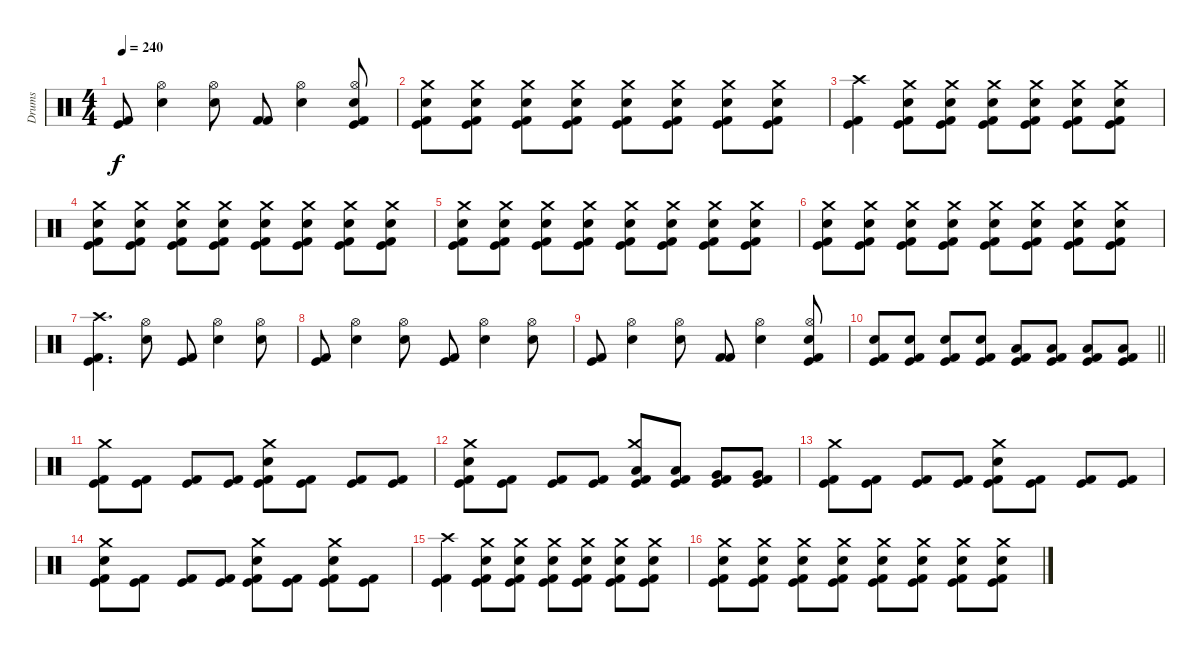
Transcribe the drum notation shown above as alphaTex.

\track ("Drums" "Drums") {instrument percussion}
\staff {score}
\articulation defaults
\ts (4 4)
\tempo 240
\clef neutral
\ks c
("Kick (hit)" "Kick (hit) 2").8{dy f} ("Hi-Hat (open)" "Electric Snare (hit)").4 ("Hi-Hat (open)" "Electric Snare (hit)").8 ("Kick (hit) 2" "Kick (hit) 2").8 ("Hi-Hat (open)" "Electric Snare (hit)").4 ("Hi-Hat (open)" "Electric Snare (hit)" "Kick (hit)" "Kick (hit) 2").8 |
("Crash medium (hit)" "Electric Snare (hit)" "Kick (hit)" "Kick (hit) 2").8 ("Crash medium (hit)" "Electric Snare (hit)" "Kick (hit)" "Kick (hit) 2").8 ("Crash medium (hit)" "Electric Snare (hit)" "Kick (hit)" "Kick (hit) 2").8 ("Crash medium (hit)" "Electric Snare (hit)" "Kick (hit)" "Kick (hit) 2").8 ("Crash medium (hit)" "Electric Snare (hit)" "Kick (hit)" "Kick (hit) 2").8 ("Crash medium (hit)" "Electric Snare (hit)" "Kick (hit)" "Kick (hit) 2").8 ("Crash medium (hit)" "Electric Snare (hit)" "Kick (hit)" "Kick (hit) 2").8 ("Crash medium (hit)" "Electric Snare (hit)" "Kick (hit)" "Kick (hit) 2").8 |
("Crash high (hit)" "Kick (hit)" "Kick (hit) 2").4 ("Crash medium (hit)" "Electric Snare (hit)" "Kick (hit)" "Kick (hit) 2").8 ("Crash medium (hit)" "Electric Snare (hit)" "Kick (hit)" "Kick (hit) 2").8 ("Crash medium (hit)" "Electric Snare (hit)" "Kick (hit)" "Kick (hit) 2").8 ("Crash medium (hit)" "Electric Snare (hit)" "Kick (hit)" "Kick (hit) 2").8 ("Crash medium (hit)" "Electric Snare (hit)" "Kick (hit)" "Kick (hit) 2").8 ("Crash medium (hit)" "Electric Snare (hit)" "Kick (hit)" "Kick (hit) 2").8 |
("Crash medium (hit)" "Electric Snare (hit)" "Kick (hit)" "Kick (hit) 2").8 ("Crash medium (hit)" "Electric Snare (hit)" "Kick (hit)" "Kick (hit) 2").8 ("Crash medium (hit)" "Electric Snare (hit)" "Kick (hit)" "Kick (hit) 2").8 ("Crash medium (hit)" "Electric Snare (hit)" "Kick (hit)" "Kick (hit) 2").8 ("Crash medium (hit)" "Electric Snare (hit)" "Kick (hit)" "Kick (hit) 2").8 ("Crash medium (hit)" "Electric Snare (hit)" "Kick (hit)" "Kick (hit) 2").8 ("Crash medium (hit)" "Electric Snare (hit)" "Kick (hit)" "Kick (hit) 2").8 ("Crash medium (hit)" "Electric Snare (hit)" "Kick (hit)" "Kick (hit) 2").8 |
("Crash medium (hit)" "Electric Snare (hit)" "Kick (hit)" "Kick (hit) 2").8 ("Crash medium (hit)" "Electric Snare (hit)" "Kick (hit)" "Kick (hit) 2").8 ("Crash medium (hit)" "Electric Snare (hit)" "Kick (hit)" "Kick (hit) 2").8 ("Crash medium (hit)" "Electric Snare (hit)" "Kick (hit)" "Kick (hit) 2").8 ("Crash medium (hit)" "Electric Snare (hit)" "Kick (hit)" "Kick (hit) 2").8 ("Crash medium (hit)" "Electric Snare (hit)" "Kick (hit)" "Kick (hit) 2").8 ("Crash medium (hit)" "Electric Snare (hit)" "Kick (hit)" "Kick (hit) 2").8 ("Crash medium (hit)" "Electric Snare (hit)" "Kick (hit)" "Kick (hit) 2").8 |
("Crash medium (hit)" "Electric Snare (hit)" "Kick (hit)" "Kick (hit) 2").8 ("Crash medium (hit)" "Electric Snare (hit)" "Kick (hit)" "Kick (hit) 2").8 ("Crash medium (hit)" "Electric Snare (hit)" "Kick (hit)" "Kick (hit) 2").8 ("Crash medium (hit)" "Electric Snare (hit)" "Kick (hit)" "Kick (hit) 2").8 ("Crash medium (hit)" "Electric Snare (hit)" "Kick (hit)" "Kick (hit) 2").8 ("Crash medium (hit)" "Electric Snare (hit)" "Kick (hit)" "Kick (hit) 2").8 ("Crash medium (hit)" "Electric Snare (hit)" "Kick (hit)" "Kick (hit) 2").8 ("Crash medium (hit)" "Electric Snare (hit)" "Kick (hit)" "Kick (hit) 2").8 |
("Crash high (hit)" "Kick (hit)" "Kick (hit) 2").4{d} ("Hi-Hat (open)" "Electric Snare (hit)").8 ("Kick (hit)" "Kick (hit) 2").8 ("Hi-Hat (open)" "Electric Snare (hit)").4 ("Hi-Hat (open)" "Electric Snare (hit)").8 |
("Kick (hit)" "Kick (hit) 2").8 ("Hi-Hat (open)" "Electric Snare (hit)").4 ("Hi-Hat (open)" "Electric Snare (hit)").8 ("Kick (hit)" "Kick (hit) 2").8 ("Hi-Hat (open)" "Electric Snare (hit)").4 ("Hi-Hat (open)" "Electric Snare (hit)").8 |
("Kick (hit)" "Kick (hit) 2").8 ("Hi-Hat (open)" "Electric Snare (hit)").4 ("Hi-Hat (open)" "Electric Snare (hit)").8 ("Kick (hit) 2" "Kick (hit) 2").8 ("Hi-Hat (open)" "Electric Snare (hit)").4 ("Hi-Hat (open)" "Electric Snare (hit)" "Kick (hit)" "Kick (hit) 2").8 |
\barLineRight lightlight
("Electric Snare (hit)" "Kick (hit)" "Kick (hit) 2").8 ("Electric Snare (hit)" "Kick (hit)" "Kick (hit) 2").8 ("Electric Snare (hit)" "Kick (hit)" "Kick (hit) 2").8 ("Electric Snare (hit)" "Kick (hit)" "Kick (hit) 2").8 ("Low Tom (hit)" "Kick (hit)" "Kick (hit) 2").8 ("Low Tom (hit)" "Kick (hit)" "Kick (hit) 2").8 ("Low Tom (hit)" "Kick (hit)" "Kick (hit) 2").8 ("Low Tom (hit)" "Kick (hit)" "Kick (hit) 2").8 |
\section ("" "")
("Crash medium (hit)" "Kick (hit)" "Kick (hit) 2").8 ("Kick (hit)" "Kick (hit) 2").8 ("Kick (hit)" "Kick (hit) 2").8 ("Kick (hit)" "Kick (hit) 2").8 ("Crash medium (hit)" "Electric Snare (hit)" "Kick (hit)" "Kick (hit) 2").8 ("Kick (hit)" "Kick (hit) 2").8 ("Kick (hit)" "Kick (hit) 2").8 ("Kick (hit)" "Kick (hit) 2").8 |
("Crash medium (hit)" "Electric Snare (hit)" "Kick (hit)" "Kick (hit) 2").8 ("Kick (hit)" "Kick (hit) 2").8 ("Kick (hit)" "Kick (hit) 2").8 ("Kick (hit)" "Kick (hit) 2").8 ("Crash medium (hit)" "Low Tom (hit)" "Kick (hit)" "Kick (hit) 2").8 ("Low Tom (hit)" "Kick (hit)" "Kick (hit) 2").8 ("Very Low Tom (hit)" "Kick (hit)" "Kick (hit) 2").8 ("Very Low Tom (hit)" "Kick (hit)" "Kick (hit) 2").8 |
("Crash medium (hit)" "Kick (hit)" "Kick (hit) 2").8 ("Kick (hit)" "Kick (hit) 2").8 ("Kick (hit)" "Kick (hit) 2").8 ("Kick (hit)" "Kick (hit) 2").8 ("Crash medium (hit)" "Electric Snare (hit)" "Kick (hit)" "Kick (hit) 2").8 ("Kick (hit)" "Kick (hit) 2").8 ("Kick (hit)" "Kick (hit) 2").8 ("Kick (hit)" "Kick (hit) 2").8 |
("Crash medium (hit)" "Electric Snare (hit)" "Kick (hit)" "Kick (hit) 2").8 ("Kick (hit)" "Kick (hit) 2").8 ("Kick (hit)" "Kick (hit) 2").8 ("Kick (hit)" "Kick (hit) 2").8 ("Crash medium (hit)" "Electric Snare (hit)" "Kick (hit)" "Kick (hit) 2").8 ("Kick (hit)" "Kick (hit) 2").8 ("Crash medium (hit)" "Electric Snare (hit)" "Kick (hit)" "Kick (hit) 2").8 ("Kick (hit)" "Kick (hit) 2").8 |
("Crash high (hit)" "Kick (hit)" "Kick (hit) 2").4 ("Crash medium (hit)" "Electric Snare (hit)" "Kick (hit)" "Kick (hit) 2").8 ("Crash medium (hit)" "Electric Snare (hit)" "Kick (hit)" "Kick (hit) 2").8 ("Crash medium (hit)" "Electric Snare (hit)" "Kick (hit)" "Kick (hit) 2").8 ("Crash medium (hit)" "Electric Snare (hit)" "Kick (hit)" "Kick (hit) 2").8 ("Crash medium (hit)" "Electric Snare (hit)" "Kick (hit)" "Kick (hit) 2").8 ("Crash medium (hit)" "Electric Snare (hit)" "Kick (hit)" "Kick (hit) 2").8 |
("Crash medium (hit)" "Electric Snare (hit)" "Kick (hit)" "Kick (hit) 2").8 ("Crash medium (hit)" "Electric Snare (hit)" "Kick (hit)" "Kick (hit) 2").8 ("Crash medium (hit)" "Electric Snare (hit)" "Kick (hit)" "Kick (hit) 2").8 ("Crash medium (hit)" "Electric Snare (hit)" "Kick (hit)" "Kick (hit) 2").8 ("Crash medium (hit)" "Electric Snare (hit)" "Kick (hit)" "Kick (hit) 2").8 ("Crash medium (hit)" "Electric Snare (hit)" "Kick (hit)" "Kick (hit) 2").8 ("Crash medium (hit)" "Electric Snare (hit)" "Kick (hit)" "Kick (hit) 2").8 ("Crash medium (hit)" "Electric Snare (hit)" "Kick (hit)" "Kick (hit) 2").8
